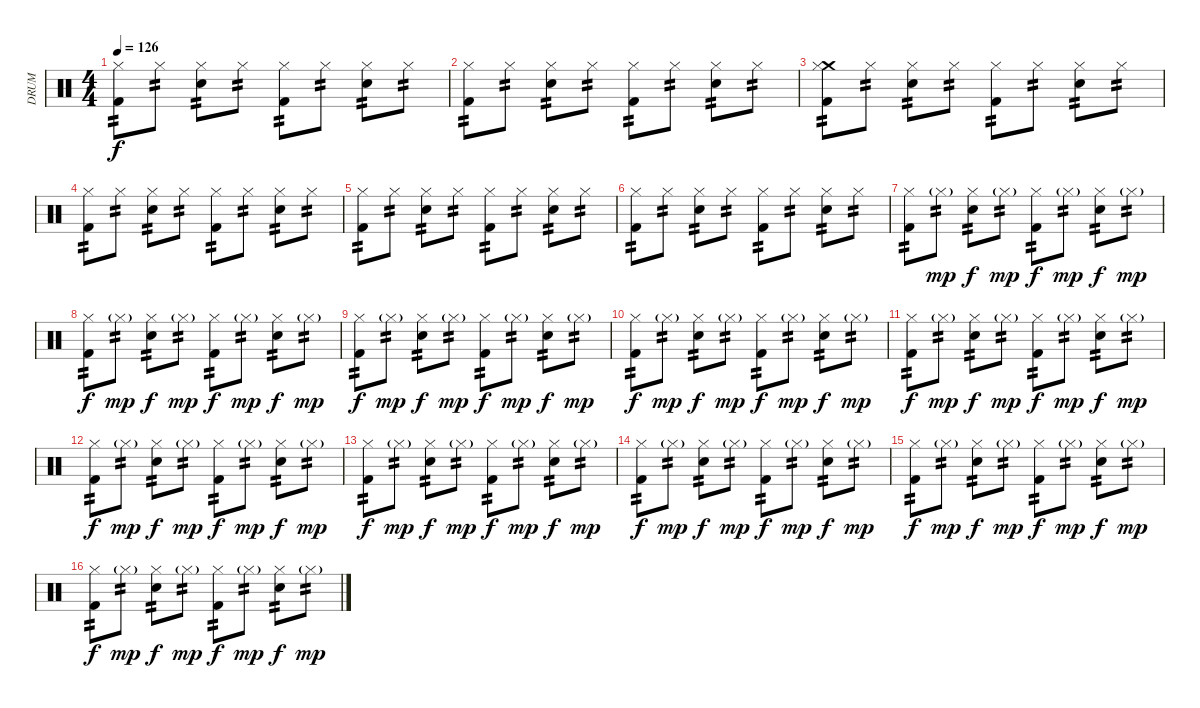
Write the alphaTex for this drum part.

\track ("DRUM" "DRUM") {instrument percussion}
\staff {score}
\articulation defaults
\ts (4 4)
\tempo 126
\clef neutral
\ks c
("Hi-Hat (closed)" "Kick (hit) 2").8{tp 2 dy f} "Hi-Hat (closed)".8{tp 2} ("Hi-Hat (closed)" "Electric Snare (hit)").8{tp 2} "Hi-Hat (closed)".8{tp 2} ("Hi-Hat (closed)" "Kick (hit) 2").8{tp 2} "Hi-Hat (closed)".8{tp 2} ("Hi-Hat (closed)" "Electric Snare (hit)").8{tp 2} "Hi-Hat (closed)".8{tp 2} |
("Hi-Hat (closed)" "Kick (hit) 2").8{tp 2} "Hi-Hat (closed)".8{tp 2} ("Hi-Hat (closed)" "Electric Snare (hit)").8{tp 2} "Hi-Hat (closed)".8{tp 2} ("Hi-Hat (closed)" "Kick (hit) 2").8{tp 2} "Hi-Hat (closed)".8{tp 2} ("Hi-Hat (closed)" "Electric Snare (hit)").8{tp 2} "Hi-Hat (closed)".8{tp 2} |
("Crash medium (hit)" "Hi-Hat (closed)" "Kick (hit) 2").8{tp 2} "Hi-Hat (closed)".8{tp 2} ("Hi-Hat (closed)" "Electric Snare (hit)").8{tp 2} "Hi-Hat (closed)".8{tp 2} ("Hi-Hat (closed)" "Kick (hit) 2").8{tp 2} "Hi-Hat (closed)".8{tp 2} ("Hi-Hat (closed)" "Electric Snare (hit)").8{tp 2} "Hi-Hat (closed)".8{tp 2} |
("Hi-Hat (closed)" "Kick (hit) 2").8{tp 2} "Hi-Hat (closed)".8{tp 2} ("Hi-Hat (closed)" "Electric Snare (hit)").8{tp 2} "Hi-Hat (closed)".8{tp 2} ("Hi-Hat (closed)" "Kick (hit) 2").8{tp 2} "Hi-Hat (closed)".8{tp 2} ("Hi-Hat (closed)" "Electric Snare (hit)").8{tp 2} "Hi-Hat (closed)".8{tp 2} |
("Hi-Hat (closed)" "Kick (hit) 2").8{tp 2} "Hi-Hat (closed)".8{tp 2} ("Hi-Hat (closed)" "Electric Snare (hit)").8{tp 2} "Hi-Hat (closed)".8{tp 2} ("Hi-Hat (closed)" "Kick (hit) 2").8{tp 2} "Hi-Hat (closed)".8{tp 2} ("Hi-Hat (closed)" "Electric Snare (hit)").8{tp 2} "Hi-Hat (closed)".8{tp 2} |
("Hi-Hat (closed)" "Kick (hit) 2").8{tp 2} "Hi-Hat (closed)".8{tp 2} ("Hi-Hat (closed)" "Electric Snare (hit)").8{tp 2} "Hi-Hat (closed)".8{tp 2} ("Hi-Hat (closed)" "Kick (hit) 2").8{tp 2} "Hi-Hat (closed)".8{tp 2} ("Hi-Hat (closed)" "Electric Snare (hit)").8{tp 2} "Hi-Hat (closed)".8{tp 2} |
("Hi-Hat (closed)" "Kick (hit) 2").8{tp 2} "Hi-Hat (closed)"{g}.8{tp 2 dy mp} ("Hi-Hat (closed)" "Electric Snare (hit)").8{tp 2 dy f} "Hi-Hat (closed)"{g}.8{tp 2 dy mp} ("Hi-Hat (closed)" "Kick (hit) 2").8{tp 2 dy f} "Hi-Hat (closed)"{g}.8{tp 2 dy mp} ("Hi-Hat (closed)" "Electric Snare (hit)").8{tp 2 dy f} "Hi-Hat (closed)"{g}.8{tp 2 dy mp} |
("Hi-Hat (closed)" "Kick (hit) 2").8{tp 2 dy f} "Hi-Hat (closed)"{g}.8{tp 2 dy mp} ("Hi-Hat (closed)" "Electric Snare (hit)").8{tp 2 dy f} "Hi-Hat (closed)"{g}.8{tp 2 dy mp} ("Hi-Hat (closed)" "Kick (hit) 2").8{tp 2 dy f} "Hi-Hat (closed)"{g}.8{tp 2 dy mp} ("Hi-Hat (closed)" "Electric Snare (hit)").8{tp 2 dy f} "Hi-Hat (closed)"{g}.8{tp 2 dy mp} |
("Hi-Hat (closed)" "Kick (hit) 2").8{tp 2 dy f} "Hi-Hat (closed)"{g}.8{tp 2 dy mp} ("Hi-Hat (closed)" "Electric Snare (hit)").8{tp 2 dy f} "Hi-Hat (closed)"{g}.8{tp 2 dy mp} ("Hi-Hat (closed)" "Kick (hit) 2").8{tp 2 dy f} "Hi-Hat (closed)"{g}.8{tp 2 dy mp} ("Hi-Hat (closed)" "Electric Snare (hit)").8{tp 2 dy f} "Hi-Hat (closed)"{g}.8{tp 2 dy mp} |
("Hi-Hat (closed)" "Kick (hit) 2").8{tp 2 dy f} "Hi-Hat (closed)"{g}.8{tp 2 dy mp} ("Hi-Hat (closed)" "Electric Snare (hit)").8{tp 2 dy f} "Hi-Hat (closed)"{g}.8{tp 2 dy mp} ("Hi-Hat (closed)" "Kick (hit) 2").8{tp 2 dy f} "Hi-Hat (closed)"{g}.8{tp 2 dy mp} ("Hi-Hat (closed)" "Electric Snare (hit)").8{tp 2 dy f} "Hi-Hat (closed)"{g}.8{tp 2 dy mp} |
("Hi-Hat (closed)" "Kick (hit) 2").8{tp 2 dy f} "Hi-Hat (closed)"{g}.8{tp 2 dy mp} ("Hi-Hat (closed)" "Electric Snare (hit)").8{tp 2 dy f} "Hi-Hat (closed)"{g}.8{tp 2 dy mp} ("Hi-Hat (closed)" "Kick (hit) 2").8{tp 2 dy f} "Hi-Hat (closed)"{g}.8{tp 2 dy mp} ("Hi-Hat (closed)" "Electric Snare (hit)").8{tp 2 dy f} "Hi-Hat (closed)"{g}.8{tp 2 dy mp} |
("Hi-Hat (closed)" "Kick (hit) 2").8{tp 2 dy f} "Hi-Hat (closed)"{g}.8{tp 2 dy mp} ("Hi-Hat (closed)" "Electric Snare (hit)").8{tp 2 dy f} "Hi-Hat (closed)"{g}.8{tp 2 dy mp} ("Hi-Hat (closed)" "Kick (hit) 2").8{tp 2 dy f} "Hi-Hat (closed)"{g}.8{tp 2 dy mp} ("Hi-Hat (closed)" "Electric Snare (hit)").8{tp 2 dy f} "Hi-Hat (closed)"{g}.8{tp 2 dy mp} |
("Hi-Hat (closed)" "Kick (hit) 2").8{tp 2 dy f} "Hi-Hat (closed)"{g}.8{tp 2 dy mp} ("Hi-Hat (closed)" "Electric Snare (hit)").8{tp 2 dy f} "Hi-Hat (closed)"{g}.8{tp 2 dy mp} ("Hi-Hat (closed)" "Kick (hit) 2").8{tp 2 dy f} "Hi-Hat (closed)"{g}.8{tp 2 dy mp} ("Hi-Hat (closed)" "Electric Snare (hit)").8{tp 2 dy f} "Hi-Hat (closed)"{g}.8{tp 2 dy mp} |
("Hi-Hat (closed)" "Kick (hit) 2").8{tp 2 dy f} "Hi-Hat (closed)"{g}.8{tp 2 dy mp} ("Hi-Hat (closed)" "Electric Snare (hit)").8{tp 2 dy f} "Hi-Hat (closed)"{g}.8{tp 2 dy mp} ("Hi-Hat (closed)" "Kick (hit) 2").8{tp 2 dy f} "Hi-Hat (closed)"{g}.8{tp 2 dy mp} ("Hi-Hat (closed)" "Electric Snare (hit)").8{tp 2 dy f} "Hi-Hat (closed)"{g}.8{tp 2 dy mp} |
("Hi-Hat (closed)" "Kick (hit) 2").8{tp 2 dy f} "Hi-Hat (closed)"{g}.8{tp 2 dy mp} ("Hi-Hat (closed)" "Electric Snare (hit)").8{tp 2 dy f} "Hi-Hat (closed)"{g}.8{tp 2 dy mp} ("Hi-Hat (closed)" "Kick (hit) 2").8{tp 2 dy f} "Hi-Hat (closed)"{g}.8{tp 2 dy mp} ("Hi-Hat (closed)" "Electric Snare (hit)").8{tp 2 dy f} "Hi-Hat (closed)"{g}.8{tp 2 dy mp} |
("Hi-Hat (closed)" "Kick (hit) 2").8{tp 2 dy f} "Hi-Hat (closed)"{g}.8{tp 2 dy mp} ("Hi-Hat (closed)" "Electric Snare (hit)").8{tp 2 dy f} "Hi-Hat (closed)"{g}.8{tp 2 dy mp} ("Hi-Hat (closed)" "Kick (hit) 2").8{tp 2 dy f} "Hi-Hat (closed)"{g}.8{tp 2 dy mp} ("Hi-Hat (closed)" "Electric Snare (hit)").8{tp 2 dy f} "Hi-Hat (closed)"{g}.8{tp 2 dy mp}
